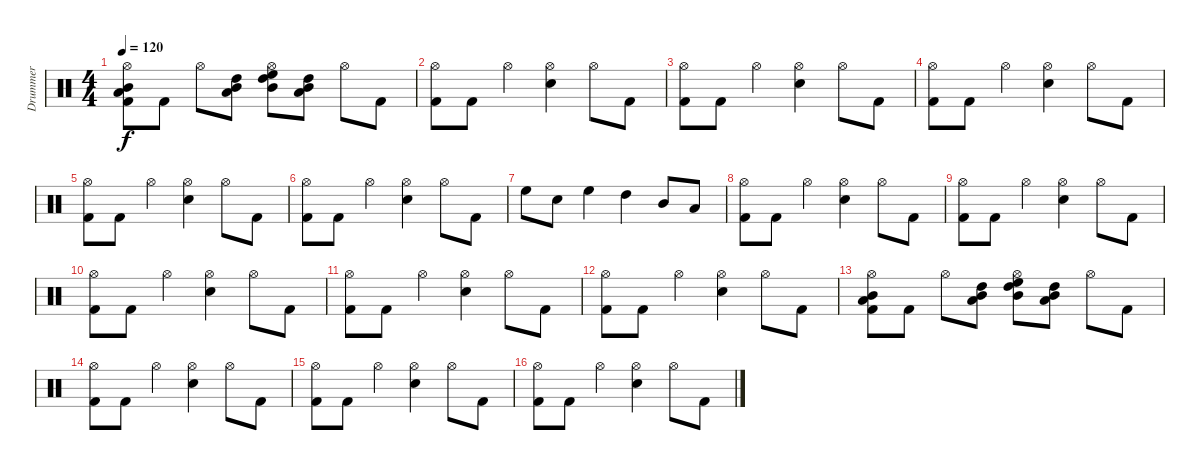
\track ("Drummer" "Drummer") {instrument percussion}
\staff {score}
\articulation defaults
\ts (4 4)
\tempo 120
\clef neutral
\ks c
("Hi-Hat (open)" "Mid Tom (hit)" "Low Tom (hit)" "Kick (hit) 2").8{dy f} "Kick (hit) 2".8 "Hi-Hat (open)".8 ("High Tom (hit)" "Mid Tom (hit)" "Low Tom (hit)").8 ("Hi-Hat (open)" "High Floor Tom (hit)" "High Tom (hit)" "Mid Tom (hit)").8 ("High Tom (hit)" "Mid Tom (hit)" "Low Tom (hit)").8 "Hi-Hat (open)".8 "Kick (hit) 2".8 |
("Hi-Hat (open)" "Kick (hit) 2").8 "Kick (hit) 2".8 "Hi-Hat (open)".4 ("Hi-Hat (open)" "Snare (hit) 2").4 "Hi-Hat (open)".8 "Kick (hit) 2".8 |
("Hi-Hat (open)" "Kick (hit) 2").8 "Kick (hit) 2".8 "Hi-Hat (open)".4 ("Hi-Hat (open)" "Snare (hit) 2").4 "Hi-Hat (open)".8 "Kick (hit) 2".8 |
("Hi-Hat (open)" "Kick (hit) 2").8 "Kick (hit) 2".8 "Hi-Hat (open)".4 ("Hi-Hat (open)" "Snare (hit) 2").4 "Hi-Hat (open)".8 "Kick (hit) 2".8 |
("Hi-Hat (open)" "Kick (hit) 2").8 "Kick (hit) 2".8 "Hi-Hat (open)".4 ("Hi-Hat (open)" "Snare (hit) 2").4 "Hi-Hat (open)".8 "Kick (hit) 2".8 |
("Hi-Hat (open)" "Kick (hit) 2").8 "Kick (hit) 2".8 "Hi-Hat (open)".4 ("Hi-Hat (open)" "Snare (hit) 2").4 "Hi-Hat (open)".8 "Kick (hit) 2".8 |
"High Floor Tom (hit)".8 "Snare (hit) 2".8 "High Floor Tom (hit)".4 "High Tom (hit)".4 "Mid Tom (hit)".8 "Low Tom (hit)".8 |
("Hi-Hat (open)" "Kick (hit) 2").8 "Kick (hit) 2".8 "Hi-Hat (open)".4 ("Hi-Hat (open)" "Snare (hit) 2").4 "Hi-Hat (open)".8 "Kick (hit) 2".8 |
("Hi-Hat (open)" "Kick (hit) 2").8 "Kick (hit) 2".8 "Hi-Hat (open)".4 ("Hi-Hat (open)" "Snare (hit) 2").4 "Hi-Hat (open)".8 "Kick (hit) 2".8 |
("Hi-Hat (open)" "Kick (hit) 2").8 "Kick (hit) 2".8 "Hi-Hat (open)".4 ("Hi-Hat (open)" "Snare (hit) 2").4 "Hi-Hat (open)".8 "Kick (hit) 2".8 |
("Hi-Hat (open)" "Kick (hit) 2").8 "Kick (hit) 2".8 "Hi-Hat (open)".4 ("Hi-Hat (open)" "Snare (hit) 2").4 "Hi-Hat (open)".8 "Kick (hit) 2".8 |
("Hi-Hat (open)" "Kick (hit) 2").8 "Kick (hit) 2".8 "Hi-Hat (open)".4 ("Hi-Hat (open)" "Snare (hit) 2").4 "Hi-Hat (open)".8 "Kick (hit) 2".8 |
("Hi-Hat (open)" "Mid Tom (hit)" "Low Tom (hit)" "Kick (hit) 2").8 "Kick (hit) 2".8 "Hi-Hat (open)".8 ("High Tom (hit)" "Mid Tom (hit)" "Low Tom (hit)").8 ("Hi-Hat (open)" "High Floor Tom (hit)" "High Tom (hit)" "Mid Tom (hit)").8 ("High Tom (hit)" "Mid Tom (hit)" "Low Tom (hit)").8 "Hi-Hat (open)".8 "Kick (hit) 2".8 |
("Hi-Hat (open)" "Kick (hit) 2").8 "Kick (hit) 2".8 "Hi-Hat (open)".4 ("Hi-Hat (open)" "Snare (hit) 2").4 "Hi-Hat (open)".8 "Kick (hit) 2".8 |
("Hi-Hat (open)" "Kick (hit) 2").8 "Kick (hit) 2".8 "Hi-Hat (open)".4 ("Hi-Hat (open)" "Snare (hit) 2").4 "Hi-Hat (open)".8 "Kick (hit) 2".8 |
("Hi-Hat (open)" "Kick (hit) 2").8 "Kick (hit) 2".8 "Hi-Hat (open)".4 ("Hi-Hat (open)" "Snare (hit) 2").4 "Hi-Hat (open)".8 "Kick (hit) 2".8
